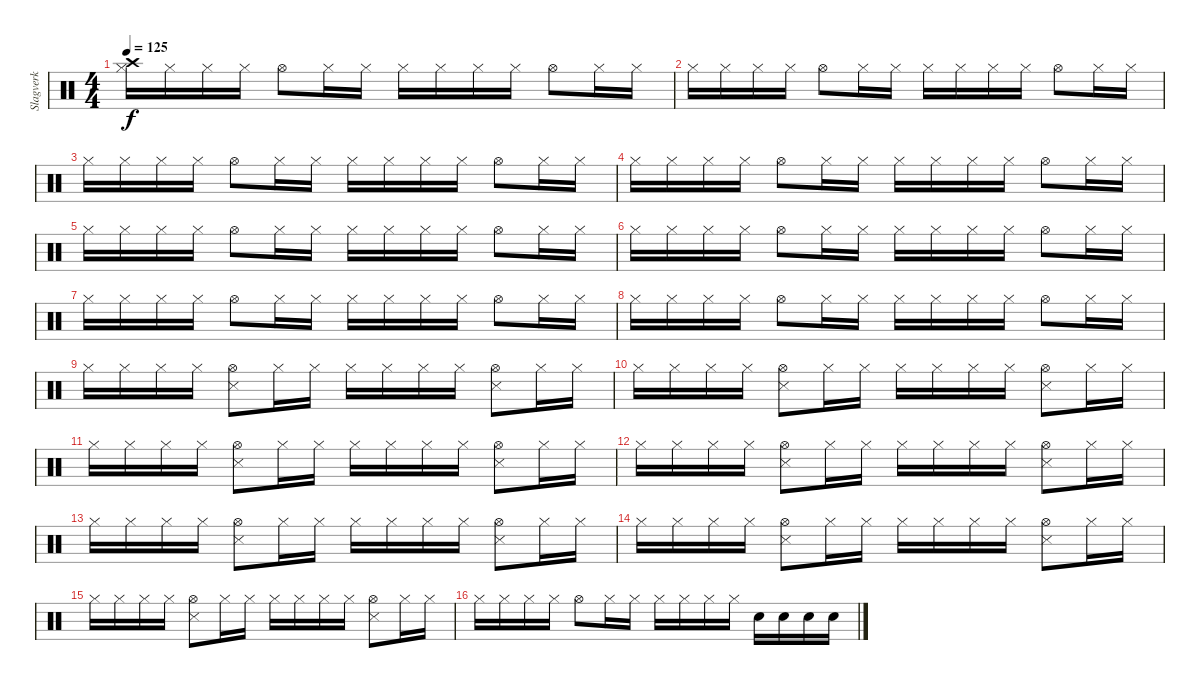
\track ("Slagverk" "Slagverk") {instrument percussion}
\staff {score}
\articulation defaults
\ts (4 4)
\tempo 125
\clef neutral
\ks c
("Crash high (hit)" "Hi-Hat (closed)").16{dy f volume 5} "Hi-Hat (closed)".16 "Hi-Hat (closed)".16 "Hi-Hat (closed)".16 "Hi-Hat (open)".8 "Hi-Hat (closed)".16 "Hi-Hat (closed)".16 "Hi-Hat (closed)".16 "Hi-Hat (closed)".16 "Hi-Hat (closed)".16 "Hi-Hat (closed)".16 "Hi-Hat (open)".8 "Hi-Hat (closed)".16 "Hi-Hat (closed)".16 |
"Hi-Hat (closed)".16{volume 5} "Hi-Hat (closed)".16 "Hi-Hat (closed)".16 "Hi-Hat (closed)".16 "Hi-Hat (open)".8 "Hi-Hat (closed)".16 "Hi-Hat (closed)".16 "Hi-Hat (closed)".16 "Hi-Hat (closed)".16 "Hi-Hat (closed)".16 "Hi-Hat (closed)".16 "Hi-Hat (open)".8 "Hi-Hat (closed)".16 "Hi-Hat (closed)".16 |
"Hi-Hat (closed)".16{volume 5} "Hi-Hat (closed)".16 "Hi-Hat (closed)".16 "Hi-Hat (closed)".16 "Hi-Hat (open)".8 "Hi-Hat (closed)".16 "Hi-Hat (closed)".16 "Hi-Hat (closed)".16 "Hi-Hat (closed)".16 "Hi-Hat (closed)".16 "Hi-Hat (closed)".16 "Hi-Hat (open)".8 "Hi-Hat (closed)".16 "Hi-Hat (closed)".16 |
"Hi-Hat (closed)".16{volume 5} "Hi-Hat (closed)".16 "Hi-Hat (closed)".16 "Hi-Hat (closed)".16 "Hi-Hat (open)".8 "Hi-Hat (closed)".16 "Hi-Hat (closed)".16 "Hi-Hat (closed)".16 "Hi-Hat (closed)".16 "Hi-Hat (closed)".16 "Hi-Hat (closed)".16 "Hi-Hat (open)".8 "Hi-Hat (closed)".16 "Hi-Hat (closed)".16 |
"Hi-Hat (closed)".16{volume 5} "Hi-Hat (closed)".16 "Hi-Hat (closed)".16 "Hi-Hat (closed)".16 "Hi-Hat (open)".8 "Hi-Hat (closed)".16 "Hi-Hat (closed)".16 "Hi-Hat (closed)".16 "Hi-Hat (closed)".16 "Hi-Hat (closed)".16 "Hi-Hat (closed)".16 "Hi-Hat (open)".8 "Hi-Hat (closed)".16 "Hi-Hat (closed)".16 |
"Hi-Hat (closed)".16{volume 5} "Hi-Hat (closed)".16 "Hi-Hat (closed)".16 "Hi-Hat (closed)".16 "Hi-Hat (open)".8 "Hi-Hat (closed)".16 "Hi-Hat (closed)".16 "Hi-Hat (closed)".16 "Hi-Hat (closed)".16 "Hi-Hat (closed)".16 "Hi-Hat (closed)".16 "Hi-Hat (open)".8 "Hi-Hat (closed)".16 "Hi-Hat (closed)".16 |
"Hi-Hat (closed)".16{volume 5} "Hi-Hat (closed)".16 "Hi-Hat (closed)".16 "Hi-Hat (closed)".16 "Hi-Hat (open)".8 "Hi-Hat (closed)".16 "Hi-Hat (closed)".16 "Hi-Hat (closed)".16 "Hi-Hat (closed)".16 "Hi-Hat (closed)".16 "Hi-Hat (closed)".16 "Hi-Hat (open)".8 "Hi-Hat (closed)".16 "Hi-Hat (closed)".16 |
"Hi-Hat (closed)".16{volume 5} "Hi-Hat (closed)".16 "Hi-Hat (closed)".16 "Hi-Hat (closed)".16 "Hi-Hat (open)".8 "Hi-Hat (closed)".16 "Hi-Hat (closed)".16 "Hi-Hat (closed)".16 "Hi-Hat (closed)".16 "Hi-Hat (closed)".16 "Hi-Hat (closed)".16 "Hi-Hat (open)".8 "Hi-Hat (closed)".16 "Hi-Hat (closed)".16 |
"Hi-Hat (closed)".16{volume 5} "Hi-Hat (closed)".16 "Hi-Hat (closed)".16 "Hi-Hat (closed)".16 ("Snare (side stick) 3" "Hi-Hat (open)").8 "Hi-Hat (closed)".16 "Hi-Hat (closed)".16 "Hi-Hat (closed)".16 "Hi-Hat (closed)".16 "Hi-Hat (closed)".16 "Hi-Hat (closed)".16 ("Snare (side stick) 3" "Hi-Hat (open)").8 "Hi-Hat (closed)".16 "Hi-Hat (closed)".16 |
"Hi-Hat (closed)".16 "Hi-Hat (closed)".16 "Hi-Hat (closed)".16 "Hi-Hat (closed)".16 ("Snare (side stick) 3" "Hi-Hat (open)").8 "Hi-Hat (closed)".16 "Hi-Hat (closed)".16 "Hi-Hat (closed)".16 "Hi-Hat (closed)".16 "Hi-Hat (closed)".16 "Hi-Hat (closed)".16 ("Snare (side stick) 3" "Hi-Hat (open)").8 "Hi-Hat (closed)".16 "Hi-Hat (closed)".16 |
"Hi-Hat (closed)".16 "Hi-Hat (closed)".16 "Hi-Hat (closed)".16 "Hi-Hat (closed)".16 ("Snare (side stick) 3" "Hi-Hat (open)").8 "Hi-Hat (closed)".16 "Hi-Hat (closed)".16 "Hi-Hat (closed)".16 "Hi-Hat (closed)".16 "Hi-Hat (closed)".16 "Hi-Hat (closed)".16 ("Snare (side stick) 3" "Hi-Hat (open)").8 "Hi-Hat (closed)".16 "Hi-Hat (closed)".16 |
"Hi-Hat (closed)".16 "Hi-Hat (closed)".16 "Hi-Hat (closed)".16 "Hi-Hat (closed)".16 ("Snare (side stick) 3" "Hi-Hat (open)").8 "Hi-Hat (closed)".16 "Hi-Hat (closed)".16 "Hi-Hat (closed)".16 "Hi-Hat (closed)".16 "Hi-Hat (closed)".16 "Hi-Hat (closed)".16 ("Snare (side stick) 3" "Hi-Hat (open)").8 "Hi-Hat (closed)".16 "Hi-Hat (closed)".16 |
"Hi-Hat (closed)".16 "Hi-Hat (closed)".16 "Hi-Hat (closed)".16 "Hi-Hat (closed)".16 ("Snare (side stick) 3" "Hi-Hat (open)").8 "Hi-Hat (closed)".16 "Hi-Hat (closed)".16 "Hi-Hat (closed)".16 "Hi-Hat (closed)".16 "Hi-Hat (closed)".16 "Hi-Hat (closed)".16 ("Snare (side stick) 3" "Hi-Hat (open)").8 "Hi-Hat (closed)".16 "Hi-Hat (closed)".16 |
"Hi-Hat (closed)".16 "Hi-Hat (closed)".16 "Hi-Hat (closed)".16 "Hi-Hat (closed)".16 ("Snare (side stick) 3" "Hi-Hat (open)").8 "Hi-Hat (closed)".16 "Hi-Hat (closed)".16 "Hi-Hat (closed)".16 "Hi-Hat (closed)".16 "Hi-Hat (closed)".16 "Hi-Hat (closed)".16 ("Snare (side stick) 3" "Hi-Hat (open)").8 "Hi-Hat (closed)".16 "Hi-Hat (closed)".16 |
"Hi-Hat (closed)".16 "Hi-Hat (closed)".16 "Hi-Hat (closed)".16 "Hi-Hat (closed)".16 ("Snare (side stick) 3" "Hi-Hat (open)").8 "Hi-Hat (closed)".16 "Hi-Hat (closed)".16 "Hi-Hat (closed)".16 "Hi-Hat (closed)".16 "Hi-Hat (closed)".16 "Hi-Hat (closed)".16 ("Snare (side stick) 3" "Hi-Hat (open)").8 "Hi-Hat (closed)".16 "Hi-Hat (closed)".16 |
"Hi-Hat (closed)".16{volume 12} "Hi-Hat (closed)".16 "Hi-Hat (closed)".16 "Hi-Hat (closed)".16 "Hi-Hat (open)".8 "Hi-Hat (closed)".16 "Hi-Hat (closed)".16 "Hi-Hat (closed)".16 "Hi-Hat (closed)".16 "Hi-Hat (closed)".16 "Hi-Hat (closed)".16 "Snare (hit) 2".16 "Snare (hit) 2".16 "Snare (hit) 2".16 "Snare (hit) 2".16
